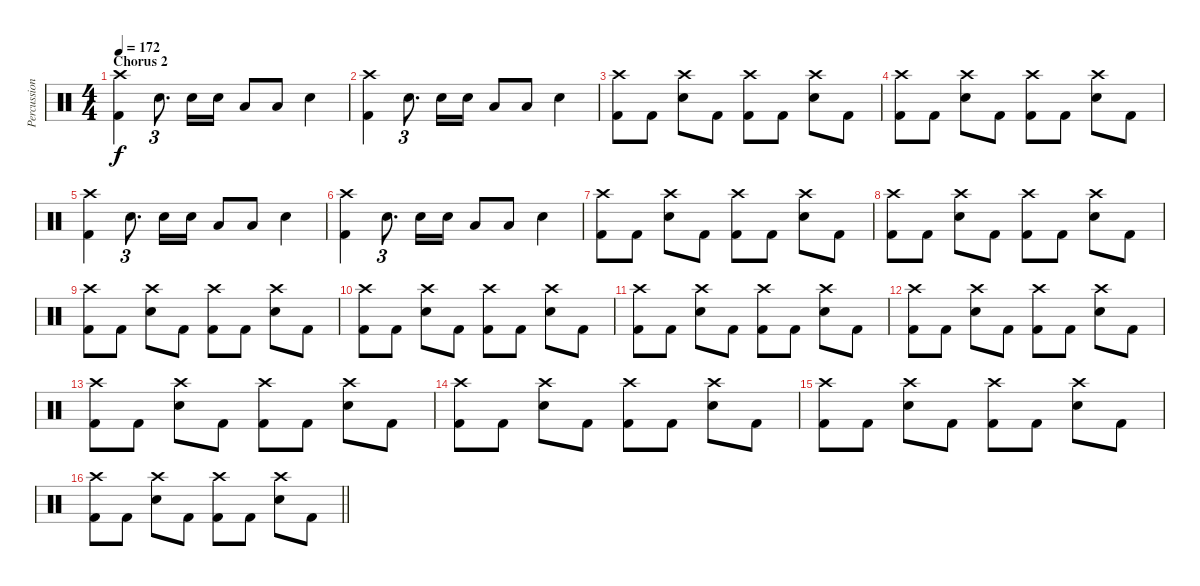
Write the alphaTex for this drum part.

\track ("Percussion" "Percussion") {instrument percussion}
\staff {score}
\articulation defaults
\ts (4 4)
\section ("" "Chorus 2")
\tempo 172
\clef neutral
\ks c
("Crash high (hit)" "Kick (hit) 2").4{dy f} "Electric Snare (hit)".8{d tu (3 2)} "Electric Snare (hit)".16 "Electric Snare (hit)".16 "Low Tom (hit)".8 "Low Tom (hit)".8 "Electric Snare (hit)".4 |
("Crash high (hit)" "Kick (hit) 2").4 "Electric Snare (hit)".8{d tu (3 2)} "Electric Snare (hit)".16 "Electric Snare (hit)".16 "Low Tom (hit)".8 "Low Tom (hit)".8 "Electric Snare (hit)".4 |
("Crash high (hit)" "Kick (hit) 2").8 "Kick (hit) 2".8 ("Crash high (hit)" "Electric Snare (hit)").8 "Kick (hit) 2".8 ("Crash high (hit)" "Kick (hit) 2").8 "Kick (hit) 2".8 ("Crash high (hit)" "Electric Snare (hit)").8 "Kick (hit) 2".8 |
("Crash high (hit)" "Kick (hit) 2").8 "Kick (hit) 2".8 ("Crash high (hit)" "Electric Snare (hit)").8 "Kick (hit) 2".8 ("Crash high (hit)" "Kick (hit) 2").8 "Kick (hit) 2".8 ("Crash high (hit)" "Electric Snare (hit)").8 "Kick (hit) 2".8 |
("Crash high (hit)" "Kick (hit) 2").4 "Electric Snare (hit)".8{d tu (3 2)} "Electric Snare (hit)".16 "Electric Snare (hit)".16 "Low Tom (hit)".8 "Low Tom (hit)".8 "Electric Snare (hit)".4 |
("Crash high (hit)" "Kick (hit) 2").4 "Electric Snare (hit)".8{d tu (3 2)} "Electric Snare (hit)".16 "Electric Snare (hit)".16 "Low Tom (hit)".8 "Low Tom (hit)".8 "Electric Snare (hit)".4 |
("Crash high (hit)" "Kick (hit) 2").8 "Kick (hit) 2".8 ("Crash high (hit)" "Electric Snare (hit)").8 "Kick (hit) 2".8 ("Crash high (hit)" "Kick (hit) 2").8 "Kick (hit) 2".8 ("Crash high (hit)" "Electric Snare (hit)").8 "Kick (hit) 2".8 |
("Crash high (hit)" "Kick (hit) 2").8 "Kick (hit) 2".8 ("Crash high (hit)" "Electric Snare (hit)").8 "Kick (hit) 2".8 ("Crash high (hit)" "Kick (hit) 2").8 "Kick (hit) 2".8 ("Crash high (hit)" "Electric Snare (hit)").8 "Kick (hit) 2".8 |
("Crash high (hit)" "Kick (hit) 2").8 "Kick (hit) 2".8 ("Crash high (hit)" "Electric Snare (hit)").8 "Kick (hit) 2".8 ("Crash high (hit)" "Kick (hit) 2").8 "Kick (hit) 2".8 ("Crash high (hit)" "Electric Snare (hit)").8 "Kick (hit) 2".8 |
("Crash high (hit)" "Kick (hit) 2").8 "Kick (hit) 2".8 ("Crash high (hit)" "Electric Snare (hit)").8 "Kick (hit) 2".8 ("Crash high (hit)" "Kick (hit) 2").8 "Kick (hit) 2".8 ("Crash high (hit)" "Electric Snare (hit)").8 "Kick (hit) 2".8 |
("Crash high (hit)" "Kick (hit) 2").8 "Kick (hit) 2".8 ("Crash high (hit)" "Electric Snare (hit)").8 "Kick (hit) 2".8 ("Crash high (hit)" "Kick (hit) 2").8 "Kick (hit) 2".8 ("Crash high (hit)" "Electric Snare (hit)").8 "Kick (hit) 2".8 |
("Crash high (hit)" "Kick (hit) 2").8 "Kick (hit) 2".8 ("Crash high (hit)" "Electric Snare (hit)").8 "Kick (hit) 2".8 ("Crash high (hit)" "Kick (hit) 2").8 "Kick (hit) 2".8 ("Crash high (hit)" "Electric Snare (hit)").8 "Kick (hit) 2".8 |
("Crash high (hit)" "Kick (hit) 2").8 "Kick (hit) 2".8 ("Crash high (hit)" "Electric Snare (hit)").8 "Kick (hit) 2".8 ("Crash high (hit)" "Kick (hit) 2").8 "Kick (hit) 2".8 ("Crash high (hit)" "Electric Snare (hit)").8 "Kick (hit) 2".8 |
("Crash high (hit)" "Kick (hit) 2").8 "Kick (hit) 2".8 ("Crash high (hit)" "Electric Snare (hit)").8 "Kick (hit) 2".8 ("Crash high (hit)" "Kick (hit) 2").8 "Kick (hit) 2".8 ("Crash high (hit)" "Electric Snare (hit)").8 "Kick (hit) 2".8 |
("Crash high (hit)" "Kick (hit) 2").8 "Kick (hit) 2".8 ("Crash high (hit)" "Electric Snare (hit)").8 "Kick (hit) 2".8 ("Crash high (hit)" "Kick (hit) 2").8 "Kick (hit) 2".8 ("Crash high (hit)" "Electric Snare (hit)").8 "Kick (hit) 2".8 |
\barLineRight lightlight
("Crash high (hit)" "Kick (hit) 2").8 "Kick (hit) 2".8 ("Crash high (hit)" "Electric Snare (hit)").8 "Kick (hit) 2".8 ("Crash high (hit)" "Kick (hit) 2").8 "Kick (hit) 2".8 ("Crash high (hit)" "Electric Snare (hit)").8 "Kick (hit) 2".8
